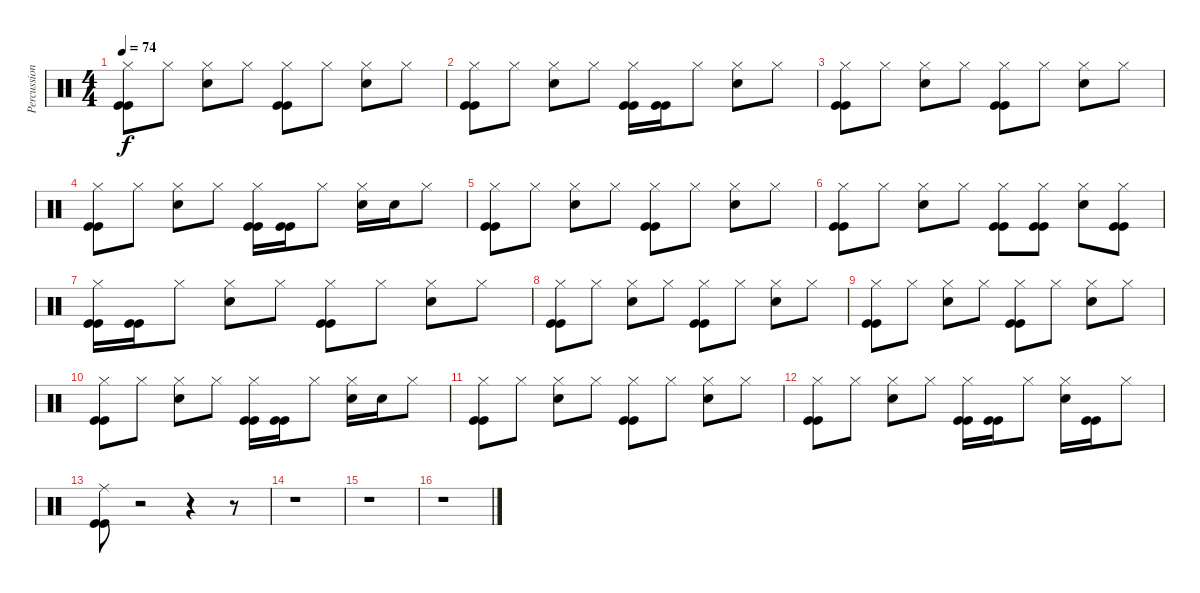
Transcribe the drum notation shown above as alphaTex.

\track ("Percussions" "Percussion") {instrument percussion}
\staff {score}
\articulation defaults
\ts (4 4)
\tempo 74
\clef neutral
\ks c
("Hi-Hat (closed)" "Kick (hit)" "Kick (hit)").8{dy f} "Hi-Hat (closed)".8 ("Hi-Hat (closed)" "Snare (hit) 2").8 "Hi-Hat (closed)".8 ("Hi-Hat (closed)" "Kick (hit)" "Kick (hit)").8 "Hi-Hat (closed)".8 ("Hi-Hat (closed)" "Snare (hit) 2").8 "Hi-Hat (closed)".8 |
("Hi-Hat (closed)" "Kick (hit)" "Kick (hit)").8 "Hi-Hat (closed)".8 ("Hi-Hat (closed)" "Snare (hit) 2").8 "Hi-Hat (closed)".8 ("Hi-Hat (closed)" "Kick (hit)" "Kick (hit)").16 ("Kick (hit)" "Kick (hit)").16 "Hi-Hat (closed)".8 ("Hi-Hat (closed)" "Snare (hit) 2").8 "Hi-Hat (closed)".8 |
("Hi-Hat (closed)" "Kick (hit)" "Kick (hit)").8 "Hi-Hat (closed)".8 ("Hi-Hat (closed)" "Snare (hit) 2").8 "Hi-Hat (closed)".8 ("Hi-Hat (closed)" "Kick (hit)" "Kick (hit)").8 "Hi-Hat (closed)".8 ("Hi-Hat (closed)" "Snare (hit) 2").8 "Hi-Hat (closed)".8 |
("Hi-Hat (closed)" "Kick (hit)" "Kick (hit)").8 "Hi-Hat (closed)".8 ("Hi-Hat (closed)" "Snare (hit) 2").8 "Hi-Hat (closed)".8 ("Hi-Hat (closed)" "Kick (hit)" "Kick (hit)").16 ("Kick (hit)" "Kick (hit)").16 "Hi-Hat (closed)".8 ("Hi-Hat (closed)" "Snare (hit) 2").16 "Snare (hit) 2".16 "Hi-Hat (closed)".8 |
("Hi-Hat (closed)" "Kick (hit)" "Kick (hit)").8 "Hi-Hat (closed)".8 ("Hi-Hat (closed)" "Snare (hit) 2").8 "Hi-Hat (closed)".8 ("Hi-Hat (closed)" "Kick (hit)" "Kick (hit)").8 "Hi-Hat (closed)".8 ("Hi-Hat (closed)" "Snare (hit) 2").8 "Hi-Hat (closed)".8 |
("Hi-Hat (closed)" "Kick (hit)" "Kick (hit)").8 "Hi-Hat (closed)".8 ("Hi-Hat (closed)" "Snare (hit) 2").8 "Hi-Hat (closed)".8 ("Hi-Hat (closed)" "Kick (hit)" "Kick (hit)").8 ("Hi-Hat (closed)" "Kick (hit)" "Kick (hit)").8 ("Hi-Hat (closed)" "Snare (hit) 2").8 ("Hi-Hat (closed)" "Kick (hit)" "Kick (hit)").8 |
("Hi-Hat (closed)" "Kick (hit)" "Kick (hit)").16 ("Kick (hit)" "Kick (hit)").16 "Hi-Hat (closed)".8 ("Hi-Hat (closed)" "Snare (hit) 2").8 "Hi-Hat (closed)".8 ("Hi-Hat (closed)" "Kick (hit)" "Kick (hit)").8 "Hi-Hat (closed)".8 ("Hi-Hat (closed)" "Snare (hit) 2").8 "Hi-Hat (closed)".8 |
("Hi-Hat (closed)" "Kick (hit)" "Kick (hit)").8 "Hi-Hat (closed)".8 ("Hi-Hat (closed)" "Snare (hit) 2").8 "Hi-Hat (closed)".8 ("Hi-Hat (closed)" "Kick (hit)" "Kick (hit)").8 "Hi-Hat (closed)".8 ("Hi-Hat (closed)" "Snare (hit) 2").8 "Hi-Hat (closed)".8 |
("Hi-Hat (closed)" "Kick (hit)" "Kick (hit)").8 "Hi-Hat (closed)".8 ("Hi-Hat (closed)" "Snare (hit) 2").8 "Hi-Hat (closed)".8 ("Hi-Hat (closed)" "Kick (hit)" "Kick (hit)").8 "Hi-Hat (closed)".8 ("Hi-Hat (closed)" "Snare (hit) 2").8 "Hi-Hat (closed)".8 |
("Hi-Hat (closed)" "Kick (hit)" "Kick (hit)").8 "Hi-Hat (closed)".8 ("Hi-Hat (closed)" "Snare (hit) 2").8 "Hi-Hat (closed)".8 ("Hi-Hat (closed)" "Kick (hit)" "Kick (hit)").16 ("Kick (hit)" "Kick (hit)").16 "Hi-Hat (closed)".8 ("Hi-Hat (closed)" "Snare (hit) 2").16 "Snare (hit) 2".16 "Hi-Hat (closed)".8 |
("Hi-Hat (closed)" "Kick (hit)" "Kick (hit)").8 "Hi-Hat (closed)".8 ("Hi-Hat (closed)" "Snare (hit) 2").8 "Hi-Hat (closed)".8 ("Hi-Hat (closed)" "Kick (hit)" "Kick (hit)").8 "Hi-Hat (closed)".8 ("Hi-Hat (closed)" "Snare (hit) 2").8 "Hi-Hat (closed)".8 |
("Hi-Hat (closed)" "Kick (hit)" "Kick (hit)").8 "Hi-Hat (closed)".8 ("Hi-Hat (closed)" "Snare (hit) 2").8 "Hi-Hat (closed)".8 ("Hi-Hat (closed)" "Kick (hit)" "Kick (hit)").16 ("Kick (hit)" "Kick (hit)").16 "Hi-Hat (closed)".8 ("Hi-Hat (closed)" "Snare (hit) 2").16 ("Kick (hit)" "Kick (hit)").16 "Hi-Hat (closed)".8 |
("Ride (middle)" "Kick (hit)" "Kick (hit)").8 r.2 r.4 r.8 |
r.1 |
r.1 |
r.1
